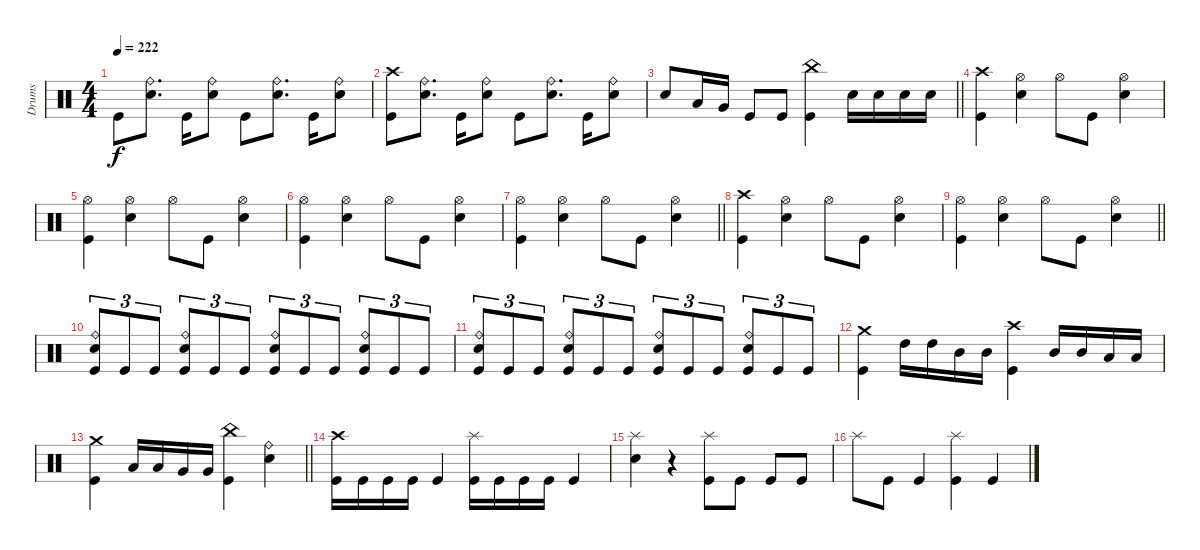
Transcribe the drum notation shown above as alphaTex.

\track ("Drums" "Drums") {instrument percussion}
\staff
\articulation defaults
\ts (4 4)
\tempo 222
\clef neutral
\ks c "Kick (hit)".8{dy f}
("Ride (bell)" "Electric Snare (hit)").8{d} "Kick (hit)".16 ("Ride (bell)" "Electric Snare (hit)").8 "Kick (hit)".8 ("Ride (bell)" "Electric Snare (hit)").8{d} "Kick (hit)".16 ("Ride (bell)" "Electric Snare (hit)").8 |
("Crash high (hit)" "Kick (hit)").8 ("Ride (bell)" "Electric Snare (hit)").8{d} "Kick (hit)".16 ("Ride (bell)" "Electric Snare (hit)").8 "Kick (hit)".8 ("Ride (bell)" "Electric Snare (hit)").8{d} "Kick (hit)".16 ("Ride (bell)" "Electric Snare (hit)").8 |
\barLineRight lightlight "Electric Snare (hit)".8 "Low Tom (hit)".16 "Very Low Tom (hit)".16 "Kick (hit)".8 "Kick (hit)".8
("China (hit)" "Kick (hit)").4 "Electric Snare (hit)".16 "Electric Snare (hit)".16 "Electric Snare (hit)".16 "Electric Snare (hit)".16 |
("Crash high (hit)" "Kick (hit)").4 ("Hi-Hat (open)" "Electric Snare (hit)").4 "Hi-Hat (open)".8 "Kick (hit)".8 ("Hi-Hat (open)" "Electric Snare (hit)").4 |
("Hi-Hat (open)" "Kick (hit)").4 ("Hi-Hat (open)" "Electric Snare (hit)").4 "Hi-Hat (open)".8 "Kick (hit)".8 ("Hi-Hat (open)" "Electric Snare (hit)").4 |
("Hi-Hat (open)" "Kick (hit)").4 ("Hi-Hat (open)" "Electric Snare (hit)").4 "Hi-Hat (open)".8 "Kick (hit)".8 ("Hi-Hat (open)" "Electric Snare (hit)").4 |
\barLineRight lightlight
("Hi-Hat (open)" "Kick (hit)").4 ("Hi-Hat (open)" "Electric Snare (hit)").4 "Hi-Hat (open)".8 "Kick (hit)".8 ("Hi-Hat (open)" "Electric Snare (hit)").4 |
("Crash high (hit)" "Kick (hit)").4 ("Hi-Hat (open)" "Electric Snare (hit)").4 "Hi-Hat (open)".8 "Kick (hit)".8 ("Hi-Hat (open)" "Electric Snare (hit)").4 |
\barLineRight lightlight
("Hi-Hat (open)" "Kick (hit)").4 ("Hi-Hat (open)" "Electric Snare (hit)").4 "Hi-Hat (open)".8 "Kick (hit)".8 ("Hi-Hat (open)" "Electric Snare (hit)").4 |
("Ride (bell)" "Electric Snare (hit)" "Kick (hit)").8{tu (3 2)} "Kick (hit)".8{tu (3 2)} "Kick (hit)".8{tu (3 2)} ("Ride (bell)" "Electric Snare (hit)" "Kick (hit)").8{tu (3 2)} "Kick (hit)".8{tu (3 2)} "Kick (hit)".8{tu (3 2)} ("Ride (bell)" "Electric Snare (hit)" "Kick (hit)").8{tu (3 2)} "Kick (hit)".8{tu (3 2)} "Kick (hit)".8{tu (3 2)} ("Ride (bell)" "Electric Snare (hit)" "Kick (hit)").8{tu (3 2)} "Kick (hit)".8{tu (3 2)} "Kick (hit)".8{tu (3 2)} |
("Ride (bell)" "Electric Snare (hit)" "Kick (hit)").8{tu (3 2)} "Kick (hit)".8{tu (3 2)} "Kick (hit)".8{tu (3 2)} ("Ride (bell)" "Electric Snare (hit)" "Kick (hit)").8{tu (3 2)} "Kick (hit)".8{tu (3 2)} "Kick (hit)".8{tu (3 2)} ("Ride (bell)" "Electric Snare (hit)" "Kick (hit)").8{tu (3 2)} "Kick (hit)".8{tu (3 2)} "Kick (hit)".8{tu (3 2)} ("Ride (bell)" "Electric Snare (hit)" "Kick (hit)").8{tu (3 2)} "Kick (hit)".8{tu (3 2)} "Kick (hit)".8{tu (3 2)} |
("Crash medium (hit)" "Kick (hit)").4 "High Tom (hit)".16 "High Tom (hit)".16 "Mid Tom (hit)".16 "Mid Tom (hit)".16 ("Crash high (hit)" "Kick (hit)").4 "Mid Tom (hit)".16 "Mid Tom (hit)".16 "Low Tom (hit)".16 "Low Tom (hit)".16 |
\barLineRight lightlight
("Crash medium (hit)" "Kick (hit)").4 "Low Tom (hit)".16 "Low Tom (hit)".16 "Very Low Tom (hit)".16 "Very Low Tom (hit)".16 ("China (hit)" "Kick (hit)").4 ("Ride (bell)" "Electric Snare (hit)").4 |
\section ("" "")
("Crash high (hit)" "Kick (hit)").16 "Kick (hit)".16 "Kick (hit)".16 "Kick (hit)".16 "Kick (hit)".4 ("Splash (hit)" "Kick (hit)").16 "Kick (hit)".16 "Kick (hit)".16 "Kick (hit)".16 "Kick (hit)".4 |
("Splash (hit)" "Electric Snare (hit)").4 r.4 ("Splash (hit)" "Kick (hit)").8 "Kick (hit)".8 "Kick (hit)".8 "Kick (hit)".8 |
"Splash (hit)".8 "Kick (hit)".8 "Kick (hit)".4 ("Splash (hit)" "Kick (hit)").4 "Kick (hit)".4
